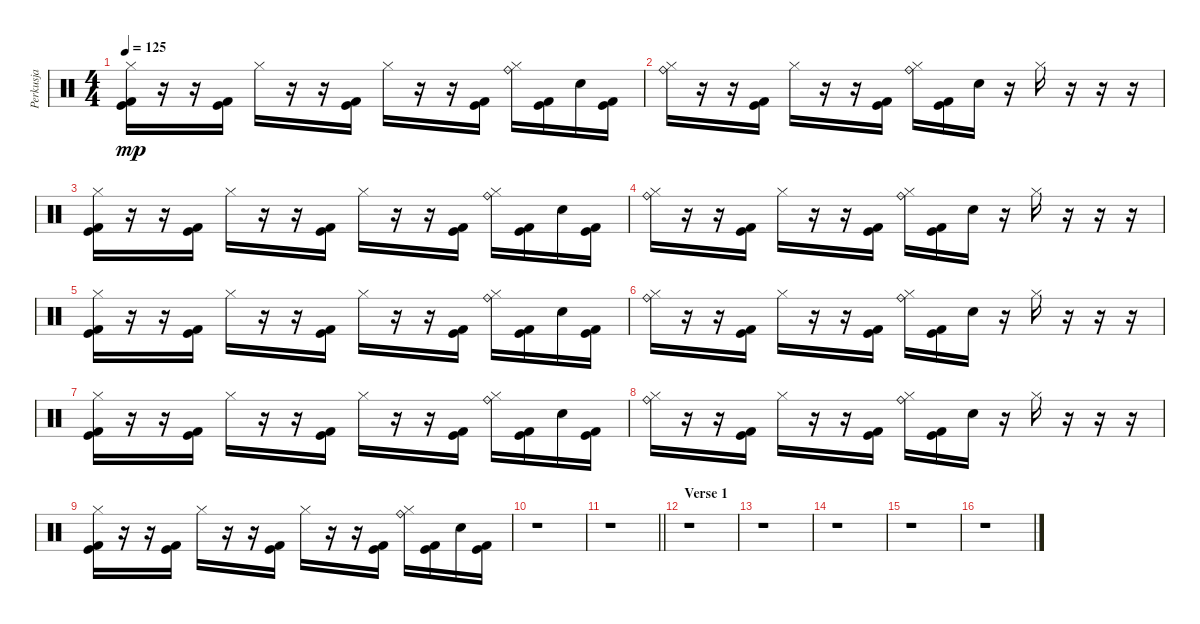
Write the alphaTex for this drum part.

\track ("Perkusja" "Perkusja") {instrument percussion}
\staff {score}
\articulation defaults
\ts (4 4)
\tempo 125
\clef neutral
\ks c
("Hi-Hat (closed)" "Kick (hit)" "Kick (hit) 2").16{dy mp} r.16 r.16 ("Kick (hit)" "Kick (hit) 2").16 "Hi-Hat (closed)".16 r.16 r.16 ("Kick (hit)" "Kick (hit) 2").16 "Hi-Hat (closed)".16 r.16 r.16 ("Kick (hit)" "Kick (hit) 2").16 ("Hi-Hat (closed)" "Ride (bell)").16 ("Kick (hit)" "Kick (hit) 2").16 "Electric Snare (hit)".16 ("Kick (hit)" "Kick (hit) 2").16 |
("Hi-Hat (closed)" "Ride (bell)").16 r.16 r.16 ("Kick (hit)" "Kick (hit) 2").16 "Hi-Hat (closed)".16 r.16 r.16 ("Kick (hit)" "Kick (hit) 2").16 ("Hi-Hat (closed)" "Ride (bell)").16 ("Kick (hit)" "Kick (hit) 2").16 "Electric Snare (hit)".16 r.16 "Hi-Hat (closed)".16 r.16 r.16 r.16 |
("Hi-Hat (closed)" "Kick (hit)" "Kick (hit) 2").16 r.16 r.16 ("Kick (hit)" "Kick (hit) 2").16 "Hi-Hat (closed)".16 r.16 r.16 ("Kick (hit)" "Kick (hit) 2").16 "Hi-Hat (closed)".16 r.16 r.16 ("Kick (hit)" "Kick (hit) 2").16 ("Hi-Hat (closed)" "Ride (bell)").16 ("Kick (hit)" "Kick (hit) 2").16 "Electric Snare (hit)".16 ("Kick (hit)" "Kick (hit) 2").16 |
("Hi-Hat (closed)" "Ride (bell)").16 r.16 r.16 ("Kick (hit)" "Kick (hit) 2").16 "Hi-Hat (closed)".16 r.16 r.16 ("Kick (hit)" "Kick (hit) 2").16 ("Hi-Hat (closed)" "Ride (bell)").16 ("Kick (hit)" "Kick (hit) 2").16 "Electric Snare (hit)".16 r.16 "Hi-Hat (closed)".16 r.16 r.16 r.16 |
("Hi-Hat (closed)" "Kick (hit)" "Kick (hit) 2").16 r.16 r.16 ("Kick (hit)" "Kick (hit) 2").16 "Hi-Hat (closed)".16 r.16 r.16 ("Kick (hit)" "Kick (hit) 2").16 "Hi-Hat (closed)".16 r.16 r.16 ("Kick (hit)" "Kick (hit) 2").16 ("Hi-Hat (closed)" "Ride (bell)").16 ("Kick (hit)" "Kick (hit) 2").16 "Electric Snare (hit)".16 ("Kick (hit)" "Kick (hit) 2").16 |
("Hi-Hat (closed)" "Ride (bell)").16 r.16 r.16 ("Kick (hit)" "Kick (hit) 2").16 "Hi-Hat (closed)".16 r.16 r.16 ("Kick (hit)" "Kick (hit) 2").16 ("Hi-Hat (closed)" "Ride (bell)").16 ("Kick (hit)" "Kick (hit) 2").16 "Electric Snare (hit)".16 r.16 "Hi-Hat (closed)".16 r.16 r.16 r.16 |
("Hi-Hat (closed)" "Kick (hit)" "Kick (hit) 2").16 r.16 r.16 ("Kick (hit)" "Kick (hit) 2").16 "Hi-Hat (closed)".16 r.16 r.16 ("Kick (hit)" "Kick (hit) 2").16 "Hi-Hat (closed)".16 r.16 r.16 ("Kick (hit)" "Kick (hit) 2").16 ("Hi-Hat (closed)" "Ride (bell)").16 ("Kick (hit)" "Kick (hit) 2").16 "Electric Snare (hit)".16 ("Kick (hit)" "Kick (hit) 2").16 |
("Hi-Hat (closed)" "Ride (bell)").16 r.16 r.16 ("Kick (hit)" "Kick (hit) 2").16 "Hi-Hat (closed)".16 r.16 r.16 ("Kick (hit)" "Kick (hit) 2").16 ("Hi-Hat (closed)" "Ride (bell)").16 ("Kick (hit)" "Kick (hit) 2").16 "Electric Snare (hit)".16 r.16 "Hi-Hat (closed)".16 r.16 r.16 r.16 |
("Hi-Hat (closed)" "Kick (hit)" "Kick (hit) 2").16 r.16 r.16 ("Kick (hit)" "Kick (hit) 2").16 "Hi-Hat (closed)".16 r.16 r.16 ("Kick (hit)" "Kick (hit) 2").16 "Hi-Hat (closed)".16 r.16 r.16 ("Kick (hit)" "Kick (hit) 2").16 ("Hi-Hat (closed)" "Ride (bell)").16 ("Kick (hit)" "Kick (hit) 2").16 "Electric Snare (hit)".16 ("Kick (hit)" "Kick (hit) 2").16 |
r.1 |
\barLineRight lightlight
r.1 |
\section ("" "Verse 1")
r.1 |
r.1 |
r.1 |
r.1 |
r.1
